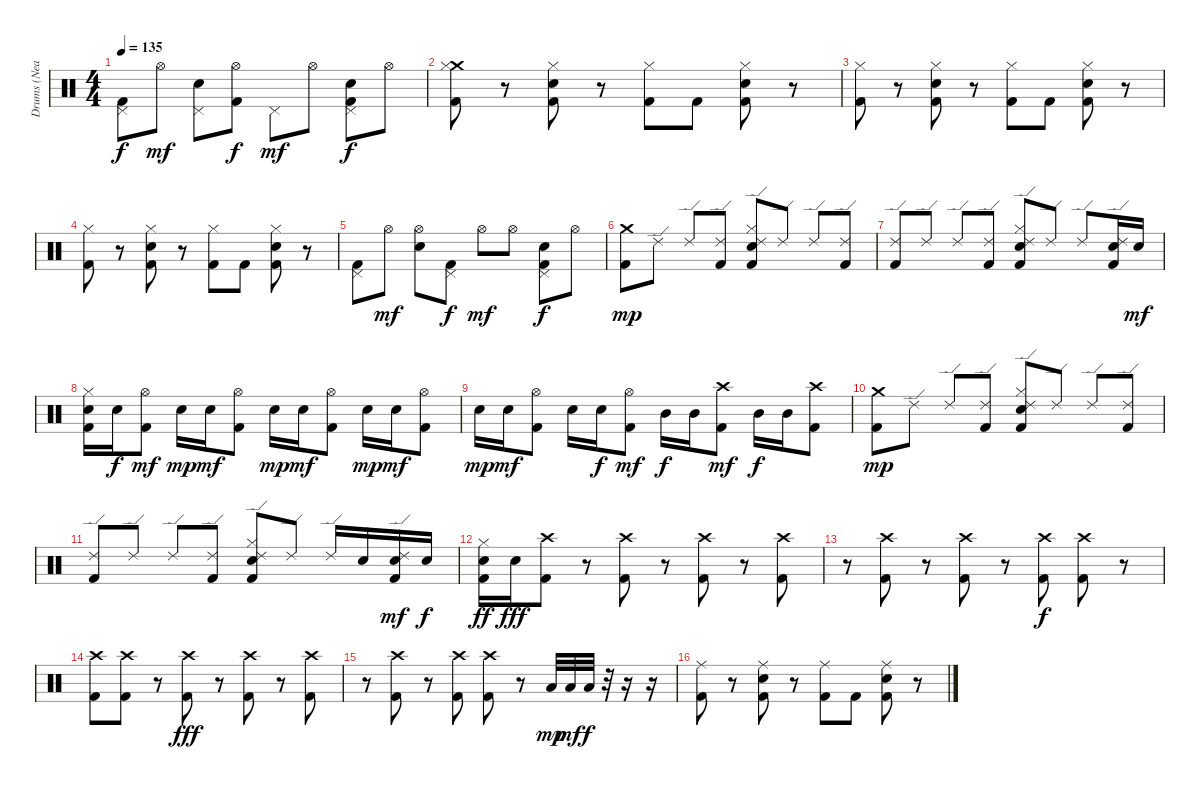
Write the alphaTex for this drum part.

\track ("Drums (Neal Peart)" "Drums (Nea") {instrument percussion}
\staff {score}
\articulation defaults
\ts (4 4)
\tempo 135
\clef neutral
\ks c
("Pedal Hi-Hat (hit)" "Kick (hit) 2").8{dy f} "Hi-Hat (open)".8{dy mf} ("Pedal Hi-Hat (hit)" "Electric Snare (hit)").8 ("Hi-Hat (open)" "Kick (hit) 2").8{dy f} "Pedal Hi-Hat (hit)".8{dy mf} "Hi-Hat (open)".8 ("Pedal Hi-Hat (hit)" "Electric Snare (hit)" "Kick (hit) 2").8{dy f} "Hi-Hat (open)".8 |
("Crash medium (hit)" "Hi-Hat (closed)" "Kick (hit) 2").8 r.8 ("Hi-Hat (closed)" "Electric Snare (hit)" "Kick (hit) 2").8 r.8 ("Hi-Hat (closed)" "Kick (hit) 2").8 "Kick (hit) 2".8 ("Hi-Hat (closed)" "Electric Snare (hit)" "Kick (hit) 2").8 r.8 |
("Hi-Hat (closed)" "Kick (hit) 2").8 r.8 ("Hi-Hat (closed)" "Electric Snare (hit)" "Kick (hit) 2").8 r.8 ("Hi-Hat (closed)" "Kick (hit) 2").8 "Kick (hit) 2".8 ("Hi-Hat (closed)" "Electric Snare (hit)" "Kick (hit) 2").8 r.8 |
("Hi-Hat (closed)" "Kick (hit) 2").8 r.8 ("Hi-Hat (closed)" "Electric Snare (hit)" "Kick (hit) 2").8 r.8 ("Hi-Hat (closed)" "Kick (hit) 2").8 "Kick (hit) 2".8 ("Hi-Hat (closed)" "Electric Snare (hit)" "Kick (hit) 2").8 r.8 |
("Pedal Hi-Hat (hit)" "Kick (hit) 2").8 "Hi-Hat (open)".8{dy mf} ("Hi-Hat (open)" "Electric Snare (hit)").8 ("Pedal Hi-Hat (hit)" "Kick (hit) 2").8{dy f} "Hi-Hat (open)".8{dy mf} "Hi-Hat (open)".8 ("Pedal Hi-Hat (hit)" "Electric Snare (hit)" "Kick (hit) 2").8{dy f} "Hi-Hat (open)".8 |
("Crash medium (hit)" "Kick (hit) 2").8{dy mp} "Ride (edge) 2".8 "Ride (edge) 2".8 ("Ride (edge) 2" "Kick (hit) 2").8 ("Ride (edge) 2" "Hi-Hat (closed)" "Electric Snare (hit)" "Kick (hit) 2").8 "Ride (edge) 2".8 "Ride (edge) 2".8 ("Ride (edge) 2" "Kick (hit) 2").8 |
("Ride (edge) 2" "Kick (hit) 2").8 "Ride (edge) 2".8 "Ride (edge) 2".8 ("Ride (edge) 2" "Kick (hit) 2").8 ("Ride (edge) 2" "Hi-Hat (closed)" "Electric Snare (hit)" "Kick (hit) 2").8 "Ride (edge) 2".8 "Ride (edge) 2".8 ("Ride (edge) 2" "Electric Snare (hit)" "Kick (hit) 2").16 "Electric Snare (hit)".16{dy mf} |
("Hi-Hat (closed)" "Electric Snare (hit)" "Kick (hit) 2").16 "Electric Snare (hit)".16{dy f} ("Hi-Hat (open)" "Kick (hit) 2").8{dy mf} "Electric Snare (hit)".16{dy mp} "Electric Snare (hit)".16{dy mf} ("Hi-Hat (open)" "Kick (hit) 2").8 "Electric Snare (hit)".16{dy mp} "Electric Snare (hit)".16{dy mf} ("Hi-Hat (open)" "Kick (hit) 2").8 "Electric Snare (hit)".16{dy mp} "Electric Snare (hit)".16{dy mf} ("Hi-Hat (open)" "Kick (hit) 2").8 |
"Electric Snare (hit)".16{dy mp} "Electric Snare (hit)".16{dy mf} ("Hi-Hat (open)" "Kick (hit) 2").8 "Electric Snare (hit)".16 "Electric Snare (hit)".16{dy f} ("Hi-Hat (open)" "Kick (hit) 2").8{dy mf} "Mid Tom (hit)".16{dy f} "Mid Tom (hit)".16 ("Crash high (hit)" "Kick (hit) 2").8{dy mf} "Mid Tom (hit)".16{dy f} "Mid Tom (hit)".16 ("Crash high (hit)" "Kick (hit) 2").8 |
("Crash medium (hit)" "Kick (hit) 2").8{dy mp volume 16} "Ride (edge) 2".8 "Ride (edge) 2".8 ("Ride (edge) 2" "Kick (hit) 2").8 ("Ride (edge) 2" "Hi-Hat (closed)" "Electric Snare (hit)" "Kick (hit) 2").8 "Ride (edge) 2".8 "Ride (edge) 2".8 ("Ride (edge) 2" "Kick (hit) 2").8 |
("Ride (edge) 2" "Kick (hit) 2").8 "Ride (edge) 2".8 "Ride (edge) 2".8 ("Ride (edge) 2" "Kick (hit) 2").8 ("Ride (edge) 2" "Hi-Hat (closed)" "Electric Snare (hit)" "Kick (hit) 2").8 "Ride (edge) 2".8 "Ride (edge) 2".16 "Electric Snare (hit)".16 ("Ride (edge) 2" "Electric Snare (hit)" "Kick (hit) 2").16{dy mf} "Electric Snare (hit)".16{dy f} |
("Hi-Hat (closed)" "Electric Snare (hit)" "Kick (hit) 2").16{dy ff} "Electric Snare (hit)".16{dy fff} ("Crash high (hit)" "Kick (hit) 2").8 r.8{volume 0} ("Crash high (hit)" "Kick (hit) 2").8{volume 16} r.8{volume 0} ("Crash high (hit)" "Kick (hit) 2").8{volume 16} r.8{volume 0} ("Crash high (hit)" "Kick (hit) 2").8{volume 16} |
r.8{volume 0} ("Crash high (hit)" "Kick (hit) 2").8{volume 16} r.8{volume 0} ("Crash high (hit)" "Kick (hit) 2").8{volume 16} r.8{volume 0} ("Crash high (hit)" "Kick (hit) 2").8{dy f volume 16} ("Crash high (hit)" "Kick (hit) 2").8 r.8{volume 0} |
("Crash high (hit)" "Kick (hit) 2").8{volume 16} ("Crash high (hit)" "Kick (hit) 2").8 r.8{volume 0} ("Crash high (hit)" "Kick (hit) 2").8{dy fff volume 16} r.8{volume 0} ("Crash high (hit)" "Kick (hit) 2").8{volume 16} r.8{volume 0} ("Crash high (hit)" "Kick (hit) 2").8{volume 16} |
r.8{volume 0} ("Crash high (hit)" "Kick (hit) 2").8{volume 16} r.8{volume 0} ("Crash high (hit)" "Kick (hit) 2").8{volume 16} ("Crash high (hit)" "Kick (hit) 2").8 r.8 "Low Tom (hit)".32{dy mp} "Low Tom (hit)".32{dy mf} "Low Tom (hit)".32{dy f} r.32 r.16 r.16 |
("Ride (middle)" "Kick (hit) 2").8 r.8 ("Ride (middle)" "Electric Snare (hit)" "Kick (hit) 2").8 r.8 ("Ride (middle)" "Kick (hit) 2").8 "Kick (hit) 2".8 ("Ride (middle)" "Electric Snare (hit)" "Kick (hit) 2").8 r.8
